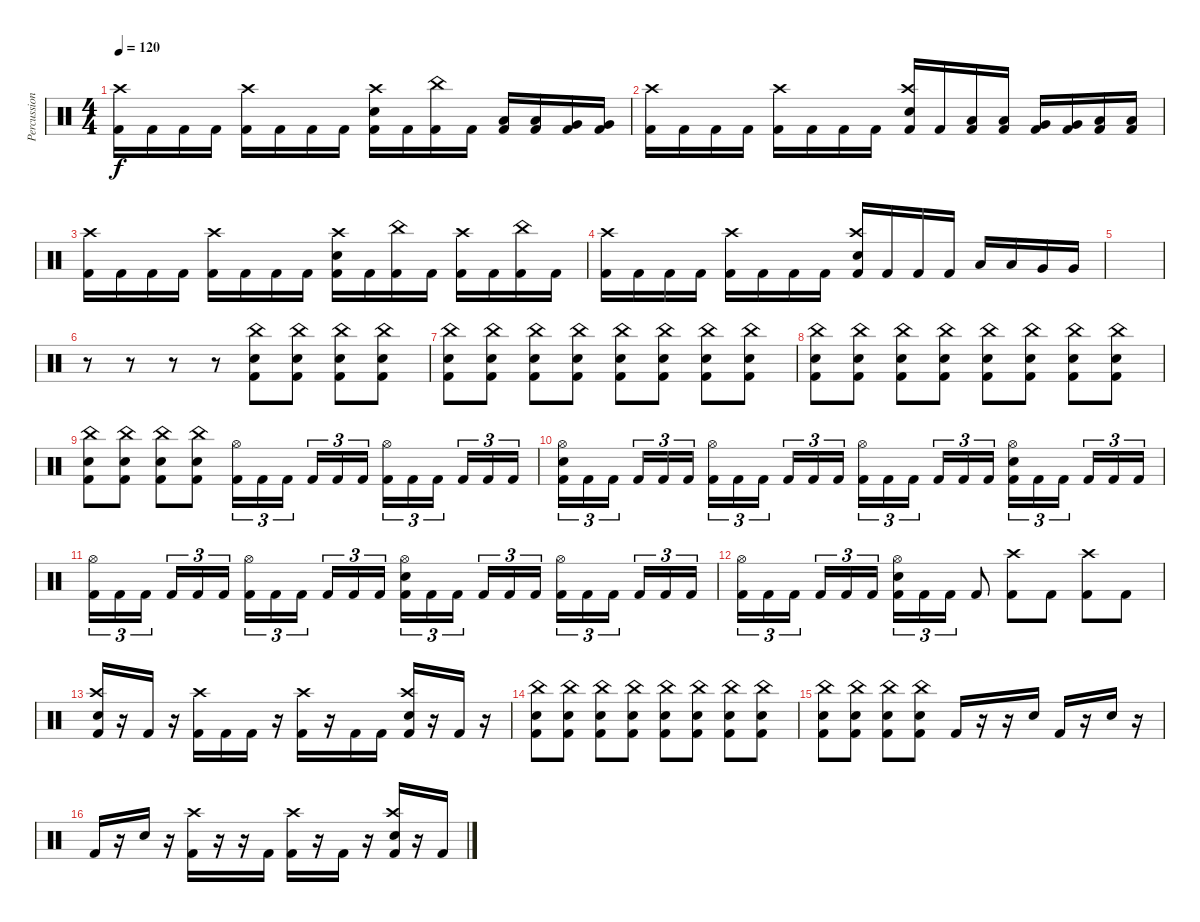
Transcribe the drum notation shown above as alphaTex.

\track ("Percussion" "Percussion") {instrument percussion}
\staff {score}
\articulation defaults
\ts (4 4)
\tempo 120
\clef neutral
\ks c
("Kick (hit) 2" "Crash high (hit)").16{dy f} "Kick (hit) 2".16 "Kick (hit) 2".16 "Kick (hit) 2".16 ("Kick (hit) 2" "Crash high (hit)").16 "Kick (hit) 2".16 "Kick (hit) 2".16 "Kick (hit) 2".16 ("Kick (hit) 2" "Crash high (hit)" "Electric Snare (hit)").16 "Kick (hit) 2".16 ("Kick (hit) 2" "China (hit)").16 "Kick (hit) 2".16 ("Kick (hit) 2" "Low Tom (hit)").16 ("Kick (hit) 2" "Low Tom (hit)").16 ("Kick (hit) 2" "Very Low Tom (hit)").16 ("Kick (hit) 2" "Very Low Tom (hit)").16 |
("Kick (hit) 2" "Crash high (hit)").16 "Kick (hit) 2".16 "Kick (hit) 2".16 "Kick (hit) 2".16 ("Kick (hit) 2" "Crash high (hit)").16 "Kick (hit) 2".16 "Kick (hit) 2".16 "Kick (hit) 2".16 ("Kick (hit) 2" "Crash high (hit)" "Electric Snare (hit)").16 "Kick (hit) 2".16 ("Kick (hit) 2" "Low Tom (hit)").16 ("Kick (hit) 2" "Low Tom (hit)").16 ("Kick (hit) 2" "Very Low Tom (hit)").16 ("Kick (hit) 2" "Very Low Tom (hit)").16 ("Kick (hit) 2" "Low Floor Tom (hit)").16 ("Kick (hit) 2" "Low Floor Tom (hit)").16 |
("Kick (hit) 2" "Crash high (hit)").16 "Kick (hit) 2".16 "Kick (hit) 2".16 "Kick (hit) 2".16 ("Kick (hit) 2" "Crash high (hit)").16 "Kick (hit) 2".16 "Kick (hit) 2".16 "Kick (hit) 2".16 ("Kick (hit) 2" "Crash high (hit)" "Electric Snare (hit)").16 "Kick (hit) 2".16 ("Kick (hit) 2" "China (hit)").16 "Kick (hit) 2".16 ("Kick (hit) 2" "Crash high (hit)").16 "Kick (hit) 2".16 ("Kick (hit) 2" "China (hit)").16 "Kick (hit) 2".16 |
("Kick (hit) 2" "Crash high (hit)").16 "Kick (hit) 2".16 "Kick (hit) 2".16 "Kick (hit) 2".16 ("Kick (hit) 2" "Crash high (hit)").16 "Kick (hit) 2".16 "Kick (hit) 2".16 "Kick (hit) 2".16 ("Kick (hit) 2" "Crash high (hit)" "Electric Snare (hit)").16 "Kick (hit) 2".16 "Kick (hit) 2".16 "Kick (hit) 2".16 "Low Tom (hit)".16 "Low Tom (hit)".16 "Very Low Tom (hit)".16 "Very Low Tom (hit)".16 |
|
r.8 r.8 r.8 r.8 ("Kick (hit) 2" "China (hit)" "Electric Snare (hit)").8 ("Kick (hit) 2" "China (hit)" "Electric Snare (hit)").8 ("Kick (hit) 2" "China (hit)" "Electric Snare (hit)").8 ("Kick (hit) 2" "China (hit)" "Electric Snare (hit)").8 |
("Kick (hit) 2" "China (hit)" "Electric Snare (hit)").8 ("Kick (hit) 2" "China (hit)" "Electric Snare (hit)").8 ("Kick (hit) 2" "China (hit)" "Electric Snare (hit)").8 ("Kick (hit) 2" "China (hit)" "Electric Snare (hit)").8 ("Kick (hit) 2" "China (hit)" "Electric Snare (hit)").8 ("Kick (hit) 2" "China (hit)" "Electric Snare (hit)").8 ("Kick (hit) 2" "China (hit)" "Electric Snare (hit)").8 ("Kick (hit) 2" "China (hit)" "Electric Snare (hit)").8 |
("Kick (hit) 2" "China (hit)" "Electric Snare (hit)").8 ("Kick (hit) 2" "China (hit)" "Electric Snare (hit)").8 ("Kick (hit) 2" "China (hit)" "Electric Snare (hit)").8 ("Kick (hit) 2" "China (hit)" "Electric Snare (hit)").8 ("Kick (hit) 2" "China (hit)" "Electric Snare (hit)").8 ("Kick (hit) 2" "China (hit)" "Electric Snare (hit)").8 ("Kick (hit) 2" "China (hit)" "Electric Snare (hit)").8 ("Kick (hit) 2" "China (hit)" "Electric Snare (hit)").8 |
("Kick (hit) 2" "Electric Snare (hit)" "China (hit)").8 ("Kick (hit) 2" "Electric Snare (hit)" "China (hit)").8 ("Kick (hit) 2" "Electric Snare (hit)" "China (hit)").8 ("Kick (hit) 2" "Electric Snare (hit)" "China (hit)").8 ("Kick (hit) 2" "Hi-Hat (open)").16{tu (3 2)} "Kick (hit) 2".16{tu (3 2)} "Kick (hit) 2".16{tu (3 2)} "Kick (hit) 2".16{tu (3 2)} "Kick (hit) 2".16{tu (3 2)} "Kick (hit) 2".16{tu (3 2)} ("Kick (hit) 2" "Hi-Hat (open)").16{tu (3 2)} "Kick (hit) 2".16{tu (3 2)} "Kick (hit) 2".16{tu (3 2)} "Kick (hit) 2".16{tu (3 2)} "Kick (hit) 2".16{tu (3 2)} "Kick (hit) 2".16{tu (3 2)} |
("Kick (hit) 2" "Electric Snare (hit)" "Hi-Hat (open)").16{tu (3 2)} "Kick (hit) 2".16{tu (3 2)} "Kick (hit) 2".16{tu (3 2)} "Kick (hit) 2".16{tu (3 2)} "Kick (hit) 2".16{tu (3 2)} "Kick (hit) 2".16{tu (3 2)} ("Kick (hit) 2" "Hi-Hat (open)").16{tu (3 2)} "Kick (hit) 2".16{tu (3 2)} "Kick (hit) 2".16{tu (3 2)} "Kick (hit) 2".16{tu (3 2)} "Kick (hit) 2".16{tu (3 2)} "Kick (hit) 2".16{tu (3 2)} ("Kick (hit) 2" "Hi-Hat (open)").16{tu (3 2)} "Kick (hit) 2".16{tu (3 2)} "Kick (hit) 2".16{tu (3 2)} "Kick (hit) 2".16{tu (3 2)} "Kick (hit) 2".16{tu (3 2)} "Kick (hit) 2".16{tu (3 2)} ("Kick (hit) 2" "Electric Snare (hit)" "Hi-Hat (open)").16{tu (3 2)} "Kick (hit) 2".16{tu (3 2)} "Kick (hit) 2".16{tu (3 2)} "Kick (hit) 2".16{tu (3 2)} "Kick (hit) 2".16{tu (3 2)} "Kick (hit) 2".16{tu (3 2)} |
("Kick (hit) 2" "Hi-Hat (open)").16{tu (3 2)} "Kick (hit) 2".16{tu (3 2)} "Kick (hit) 2".16{tu (3 2)} "Kick (hit) 2".16{tu (3 2)} "Kick (hit) 2".16{tu (3 2)} "Kick (hit) 2".16{tu (3 2)} ("Kick (hit) 2" "Hi-Hat (open)").16{tu (3 2)} "Kick (hit) 2".16{tu (3 2)} "Kick (hit) 2".16{tu (3 2)} "Kick (hit) 2".16{tu (3 2)} "Kick (hit) 2".16{tu (3 2)} "Kick (hit) 2".16{tu (3 2)} ("Kick (hit) 2" "Electric Snare (hit)" "Hi-Hat (open)").16{tu (3 2)} "Kick (hit) 2".16{tu (3 2)} "Kick (hit) 2".16{tu (3 2)} "Kick (hit) 2".16{tu (3 2)} "Kick (hit) 2".16{tu (3 2)} "Kick (hit) 2".16{tu (3 2)} ("Kick (hit) 2" "Hi-Hat (open)").16{tu (3 2)} "Kick (hit) 2".16{tu (3 2)} "Kick (hit) 2".16{tu (3 2)} "Kick (hit) 2".16{tu (3 2)} "Kick (hit) 2".16{tu (3 2)} "Kick (hit) 2".16{tu (3 2)} |
("Kick (hit) 2" "Hi-Hat (open)").16{tu (3 2)} "Kick (hit) 2".16{tu (3 2)} "Kick (hit) 2".16{tu (3 2)} "Kick (hit) 2".16{tu (3 2)} "Kick (hit) 2".16{tu (3 2)} "Kick (hit) 2".16{tu (3 2)} ("Kick (hit) 2" "Electric Snare (hit)" "Hi-Hat (open)").16{tu (3 2)} "Kick (hit) 2".16{tu (3 2)} "Kick (hit) 2".16{tu (3 2)} "Kick (hit) 2".8 ("Kick (hit) 2" "Crash high (hit)").8 "Kick (hit) 2".8 ("Kick (hit) 2" "Crash high (hit)").8 "Kick (hit) 2".8 |
("Kick (hit) 2" "Electric Snare (hit)" "Crash high (hit)").16 r.16 "Kick (hit) 2".16 r.16 ("Kick (hit) 2" "Crash high (hit)").16 "Kick (hit) 2".16 "Kick (hit) 2".16 r.16 ("Kick (hit) 2" "Crash high (hit)").16 r.16 "Kick (hit) 2".16 "Kick (hit) 2".16 ("Kick (hit) 2" "Electric Snare (hit)" "Crash high (hit)").16 r.16 "Kick (hit) 2".16 r.16 |
("Kick (hit) 2" "China (hit)" "Electric Snare (hit)").8 ("Kick (hit) 2" "China (hit)" "Electric Snare (hit)").8 ("Kick (hit) 2" "China (hit)" "Electric Snare (hit)").8 ("Kick (hit) 2" "China (hit)" "Electric Snare (hit)").8 ("Kick (hit) 2" "China (hit)" "Electric Snare (hit)").8 ("Kick (hit) 2" "China (hit)" "Electric Snare (hit)").8 ("Kick (hit) 2" "China (hit)" "Electric Snare (hit)").8 ("Kick (hit) 2" "China (hit)" "Electric Snare (hit)").8 |
("Kick (hit) 2" "China (hit)" "Electric Snare (hit)").8 ("Kick (hit) 2" "China (hit)" "Electric Snare (hit)").8 ("Kick (hit) 2" "China (hit)" "Electric Snare (hit)").8 ("Kick (hit) 2" "China (hit)" "Electric Snare (hit)").8 "Kick (hit) 2".16 r.16 r.16 "Electric Snare (hit)".16 "Kick (hit) 2".16 r.16 "Electric Snare (hit)".16 r.16 |
"Kick (hit) 2".16 r.16 "Electric Snare (hit)".16 r.16 ("Kick (hit) 2" "Crash high (hit)").16 r.16 r.16 "Kick (hit) 2".16 ("Kick (hit) 2" "Crash high (hit)").16 r.16 "Kick (hit) 2".16 r.16 ("Kick (hit) 2" "Electric Snare (hit)" "Crash high (hit)").16 r.16 "Kick (hit) 2".16
